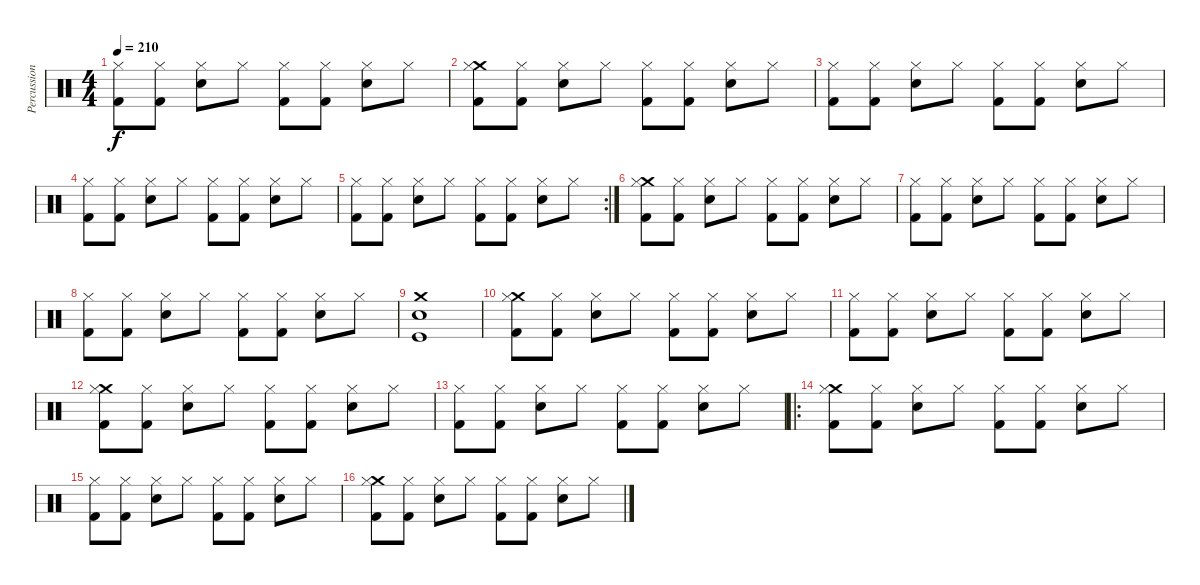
\track ("Percussion" "Percussion") {instrument percussion}
\staff {score}
\articulation defaults
\ts (4 4)
\tempo 210
\clef neutral
\ks c
("Hi-Hat (closed)" "Kick (hit) 2").8{dy f} ("Hi-Hat (closed)" "Kick (hit) 2").8 ("Hi-Hat (closed)" "Electric Snare (hit)").8 "Hi-Hat (closed)".8 ("Hi-Hat (closed)" "Kick (hit) 2").8 ("Hi-Hat (closed)" "Kick (hit) 2").8 ("Hi-Hat (closed)" "Electric Snare (hit)").8 "Hi-Hat (closed)".8 |
("Crash medium (hit)" "Hi-Hat (closed)" "Kick (hit) 2").8 ("Hi-Hat (closed)" "Kick (hit) 2").8 ("Hi-Hat (closed)" "Electric Snare (hit)").8 "Hi-Hat (closed)".8 ("Hi-Hat (closed)" "Kick (hit) 2").8 ("Hi-Hat (closed)" "Kick (hit) 2").8 ("Hi-Hat (closed)" "Electric Snare (hit)").8 "Hi-Hat (closed)".8 |
("Hi-Hat (closed)" "Kick (hit) 2").8 ("Hi-Hat (closed)" "Kick (hit) 2").8 ("Hi-Hat (closed)" "Electric Snare (hit)").8 "Hi-Hat (closed)".8 ("Hi-Hat (closed)" "Kick (hit) 2").8 ("Hi-Hat (closed)" "Kick (hit) 2").8 ("Hi-Hat (closed)" "Electric Snare (hit)").8 "Hi-Hat (closed)".8 |
("Hi-Hat (closed)" "Kick (hit) 2").8 ("Hi-Hat (closed)" "Kick (hit) 2").8 ("Hi-Hat (closed)" "Electric Snare (hit)").8 "Hi-Hat (closed)".8 ("Hi-Hat (closed)" "Kick (hit) 2").8 ("Hi-Hat (closed)" "Kick (hit) 2").8 ("Hi-Hat (closed)" "Electric Snare (hit)").8 "Hi-Hat (closed)".8 |
\rc 2
("Hi-Hat (closed)" "Kick (hit) 2").8 ("Hi-Hat (closed)" "Kick (hit) 2").8 ("Hi-Hat (closed)" "Electric Snare (hit)").8 "Hi-Hat (closed)".8 ("Hi-Hat (closed)" "Kick (hit) 2").8 ("Hi-Hat (closed)" "Kick (hit) 2").8 ("Hi-Hat (closed)" "Electric Snare (hit)").8 "Hi-Hat (closed)".8 |
("Crash medium (hit)" "Hi-Hat (closed)" "Kick (hit) 2").8 ("Hi-Hat (closed)" "Kick (hit) 2").8 ("Hi-Hat (closed)" "Electric Snare (hit)").8 "Hi-Hat (closed)".8 ("Hi-Hat (closed)" "Kick (hit) 2").8 ("Hi-Hat (closed)" "Kick (hit) 2").8 ("Hi-Hat (closed)" "Electric Snare (hit)").8 "Hi-Hat (closed)".8 |
("Hi-Hat (closed)" "Kick (hit) 2").8 ("Hi-Hat (closed)" "Kick (hit) 2").8 ("Hi-Hat (closed)" "Electric Snare (hit)").8 "Hi-Hat (closed)".8 ("Hi-Hat (closed)" "Kick (hit) 2").8 ("Hi-Hat (closed)" "Kick (hit) 2").8 ("Hi-Hat (closed)" "Electric Snare (hit)").8 "Hi-Hat (closed)".8 |
("Hi-Hat (closed)" "Kick (hit) 2").8 ("Hi-Hat (closed)" "Kick (hit) 2").8 ("Hi-Hat (closed)" "Electric Snare (hit)").8 "Hi-Hat (closed)".8 ("Hi-Hat (closed)" "Kick (hit) 2").8 ("Hi-Hat (closed)" "Kick (hit) 2").8 ("Hi-Hat (closed)" "Electric Snare (hit)").8 "Hi-Hat (closed)".8 |
("Crash medium (hit)" "Electric Snare (hit)" "Kick (hit)").1 |
("Crash medium (hit)" "Hi-Hat (closed)" "Kick (hit) 2").8 ("Hi-Hat (closed)" "Kick (hit) 2").8 ("Hi-Hat (closed)" "Electric Snare (hit)").8 "Hi-Hat (closed)".8 ("Hi-Hat (closed)" "Kick (hit) 2").8 ("Hi-Hat (closed)" "Kick (hit) 2").8 ("Hi-Hat (closed)" "Electric Snare (hit)").8 "Hi-Hat (closed)".8 |
("Hi-Hat (closed)" "Kick (hit) 2").8 ("Hi-Hat (closed)" "Kick (hit) 2").8 ("Hi-Hat (closed)" "Electric Snare (hit)").8 "Hi-Hat (closed)".8 ("Hi-Hat (closed)" "Kick (hit) 2").8 ("Hi-Hat (closed)" "Kick (hit) 2").8 ("Hi-Hat (closed)" "Electric Snare (hit)").8 "Hi-Hat (closed)".8 |
("Crash medium (hit)" "Hi-Hat (closed)" "Kick (hit) 2").8 ("Hi-Hat (closed)" "Kick (hit) 2").8 ("Hi-Hat (closed)" "Electric Snare (hit)").8 "Hi-Hat (closed)".8 ("Hi-Hat (closed)" "Kick (hit) 2").8 ("Hi-Hat (closed)" "Kick (hit) 2").8 ("Hi-Hat (closed)" "Electric Snare (hit)").8 "Hi-Hat (closed)".8 |
("Hi-Hat (closed)" "Kick (hit) 2").8 ("Hi-Hat (closed)" "Kick (hit) 2").8 ("Hi-Hat (closed)" "Electric Snare (hit)").8 "Hi-Hat (closed)".8 ("Hi-Hat (closed)" "Kick (hit) 2").8 ("Hi-Hat (closed)" "Kick (hit) 2").8 ("Hi-Hat (closed)" "Electric Snare (hit)").8 "Hi-Hat (closed)".8 |
\ro
("Crash medium (hit)" "Hi-Hat (closed)" "Kick (hit) 2").8 ("Hi-Hat (closed)" "Kick (hit) 2").8 ("Hi-Hat (closed)" "Electric Snare (hit)").8 "Hi-Hat (closed)".8 ("Hi-Hat (closed)" "Kick (hit) 2").8 ("Hi-Hat (closed)" "Kick (hit) 2").8 ("Hi-Hat (closed)" "Electric Snare (hit)").8 "Hi-Hat (closed)".8 |
("Hi-Hat (closed)" "Kick (hit) 2").8 ("Hi-Hat (closed)" "Kick (hit) 2").8 ("Hi-Hat (closed)" "Electric Snare (hit)").8 "Hi-Hat (closed)".8 ("Hi-Hat (closed)" "Kick (hit) 2").8 ("Hi-Hat (closed)" "Kick (hit) 2").8 ("Hi-Hat (closed)" "Electric Snare (hit)").8 "Hi-Hat (closed)".8 |
("Crash medium (hit)" "Hi-Hat (closed)" "Kick (hit) 2").8 ("Hi-Hat (closed)" "Kick (hit) 2").8 ("Hi-Hat (closed)" "Electric Snare (hit)").8 "Hi-Hat (closed)".8 ("Hi-Hat (closed)" "Kick (hit) 2").8 ("Hi-Hat (closed)" "Kick (hit) 2").8 ("Hi-Hat (closed)" "Electric Snare (hit)").8 "Hi-Hat (closed)".8
